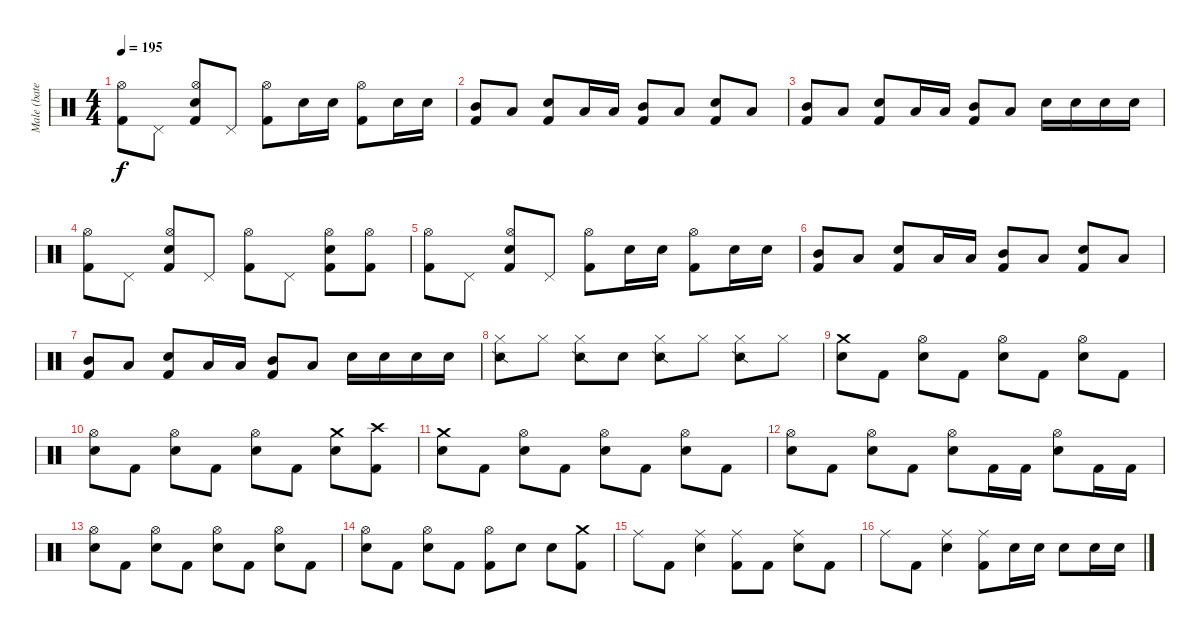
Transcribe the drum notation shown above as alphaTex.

\track ("Male (bateria)" "Male (bate") {instrument percussion}
\staff {score}
\articulation defaults
\ts (4 4)
\tempo 195
\clef neutral
\ks c
("Kick (hit) 2" "Hi-Hat (open)").8{dy f} "Pedal Hi-Hat (hit)".8 ("Kick (hit) 2" "Electric Snare (hit)" "Hi-Hat (open)").8 "Pedal Hi-Hat (hit)".8 ("Kick (hit) 2" "Hi-Hat (open)").8 "Electric Snare (hit)".16 "Electric Snare (hit)".16 ("Kick (hit) 2" "Hi-Hat (open)").8 "Electric Snare (hit)".16 "Electric Snare (hit)".16 |
("Kick (hit) 2" "Mid Tom (hit)").8 "Low Tom (hit)".8 ("Kick (hit) 2" "Electric Snare (hit)").8 "Low Tom (hit)".16 "Low Tom (hit)".16 ("Kick (hit) 2" "Mid Tom (hit)").8 "Low Tom (hit)".8 ("Kick (hit) 2" "Electric Snare (hit)").8 "Low Tom (hit)".8 |
("Kick (hit) 2" "Mid Tom (hit)").8 "Low Tom (hit)".8 ("Kick (hit) 2" "Electric Snare (hit)").8 "Low Tom (hit)".16 "Low Tom (hit)".16 ("Kick (hit) 2" "Mid Tom (hit)").8 "Low Tom (hit)".8 "Electric Snare (hit)".16 "Electric Snare (hit)".16 "Electric Snare (hit)".16 "Electric Snare (hit)".16 |
("Kick (hit) 2" "Hi-Hat (open)").8 "Pedal Hi-Hat (hit)".8 ("Kick (hit) 2" "Electric Snare (hit)" "Hi-Hat (open)").8 "Pedal Hi-Hat (hit)".8 ("Kick (hit) 2" "Hi-Hat (open)").8 "Pedal Hi-Hat (hit)".8 ("Kick (hit) 2" "Electric Snare (hit)" "Hi-Hat (open)").8 ("Kick (hit) 2" "Hi-Hat (open)").8 |
("Kick (hit) 2" "Hi-Hat (open)").8 "Pedal Hi-Hat (hit)".8 ("Kick (hit) 2" "Electric Snare (hit)" "Hi-Hat (open)").8 "Pedal Hi-Hat (hit)".8 ("Kick (hit) 2" "Hi-Hat (open)").8 "Electric Snare (hit)".16 "Electric Snare (hit)".16 ("Kick (hit) 2" "Hi-Hat (open)").8 "Electric Snare (hit)".16 "Electric Snare (hit)".16 |
("Kick (hit) 2" "Mid Tom (hit)").8 "Low Tom (hit)".8 ("Kick (hit) 2" "Electric Snare (hit)").8 "Low Tom (hit)".16 "Low Tom (hit)".16 ("Kick (hit) 2" "Mid Tom (hit)").8 "Low Tom (hit)".8 ("Kick (hit) 2" "Electric Snare (hit)").8 "Low Tom (hit)".8 |
("Kick (hit) 2" "Mid Tom (hit)").8 "Low Tom (hit)".8 ("Kick (hit) 2" "Electric Snare (hit)").8 "Low Tom (hit)".16 "Low Tom (hit)".16 ("Kick (hit) 2" "Mid Tom (hit)").8 "Low Tom (hit)".8 "Electric Snare (hit)".16 "Electric Snare (hit)".16 "Electric Snare (hit)".16 "Electric Snare (hit)".16 |
("Hi-Hat (closed)" "Snare (side stick) 2").8 "Hi-Hat (closed)".8 ("Hi-Hat (closed)" "Snare (side stick) 2").8 "Metronome (bell)".8 ("Hi-Hat (closed)" "Snare (side stick) 2").8 "Hi-Hat (closed)".8 ("Hi-Hat (closed)" "Snare (side stick) 2").8 "Hi-Hat (closed)".8 |
("Electric Snare (hit)" "Crash medium (hit)").8 "Kick (hit) 2".8 ("Electric Snare (hit)" "Hi-Hat (open)").8 "Kick (hit) 2".8 ("Electric Snare (hit)" "Hi-Hat (open)").8 "Kick (hit) 2".8 ("Electric Snare (hit)" "Hi-Hat (open)").8 "Kick (hit) 2".8 |
("Electric Snare (hit)" "Hi-Hat (open)").8 "Kick (hit) 2".8 ("Electric Snare (hit)" "Hi-Hat (open)").8 "Kick (hit) 2".8 ("Electric Snare (hit)" "Hi-Hat (open)").8 "Kick (hit) 2".8 ("Electric Snare (hit)" "Crash medium (hit)").8 ("Kick (hit) 2" "Crash high (hit)").8 |
("Electric Snare (hit)" "Crash medium (hit)").8 "Kick (hit) 2".8 ("Electric Snare (hit)" "Hi-Hat (open)").8 "Kick (hit) 2".8 ("Electric Snare (hit)" "Hi-Hat (open)").8 "Kick (hit) 2".8 ("Electric Snare (hit)" "Hi-Hat (open)").8 "Kick (hit) 2".8 |
("Electric Snare (hit)" "Hi-Hat (open)").8 "Kick (hit) 2".8 ("Electric Snare (hit)" "Hi-Hat (open)").8 "Kick (hit) 2".8 ("Electric Snare (hit)" "Hi-Hat (open)").8 "Kick (hit) 2".16 "Kick (hit) 2".16 ("Electric Snare (hit)" "Hi-Hat (open)").8 "Kick (hit) 2".16 "Kick (hit) 2".16 |
("Electric Snare (hit)" "Hi-Hat (open)").8 "Kick (hit) 2".8 ("Electric Snare (hit)" "Hi-Hat (open)").8 "Kick (hit) 2".8 ("Electric Snare (hit)" "Hi-Hat (open)").8 "Kick (hit) 2".8 ("Electric Snare (hit)" "Hi-Hat (open)").8 "Kick (hit) 2".8 |
("Electric Snare (hit)" "Hi-Hat (open)").8 "Kick (hit) 2".8 ("Electric Snare (hit)" "Hi-Hat (open)").8 "Kick (hit) 2".8 ("Kick (hit) 2" "Hi-Hat (open)").8 "Electric Snare (hit)".8 "Electric Snare (hit)".8 ("Kick (hit) 2" "Crash medium (hit)").8 |
"Ride (middle)".8 "Kick (hit) 2".8 ("Electric Snare (hit)" "Ride (middle)").4 ("Kick (hit) 2" "Ride (middle)").8 "Kick (hit) 2".8 ("Electric Snare (hit)" "Ride (middle)").8 "Kick (hit) 2".8 |
"Ride (middle)".8 "Kick (hit) 2".8 ("Electric Snare (hit)" "Ride (middle)").4 ("Kick (hit) 2" "Ride (middle)").8 "Electric Snare (hit)".16 "Electric Snare (hit)".16 "Electric Snare (hit)".8 "Electric Snare (hit)".16 "Electric Snare (hit)".16
